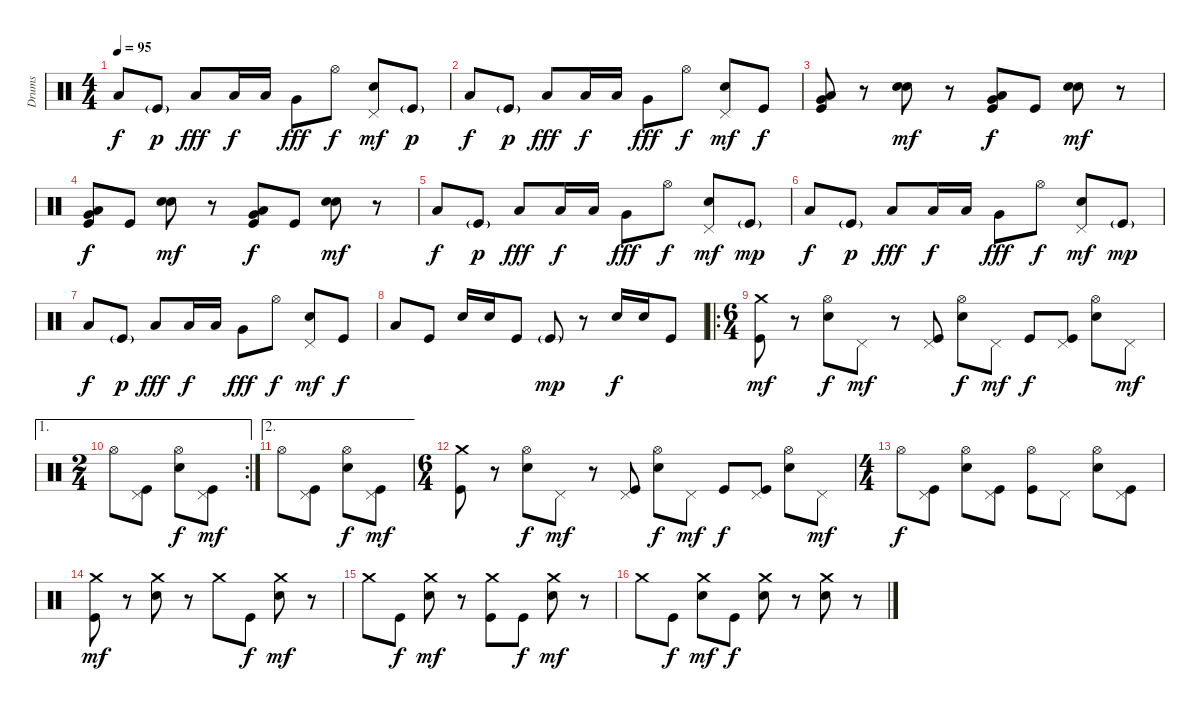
\track ("Drums" "Drums") {instrument percussion}
\staff {score}
\articulation defaults
\ts (4 4)
\tempo 95
\clef neutral
\ks c "Low Floor Tom (hit)".8{dy f} "Kick (hit)"{g}.8{dy p} "Low Tom (hit)".8{dy fff} "Low Tom (hit)".16{dy f} "Low Tom (hit)".16 "Very Low Tom (hit)".8{dy fff} "Hi-Hat (open)".8{dy f}
("Pedal Hi-Hat (hit)" "Snare (hit) 2").8{dy mf} "Kick (hit)"{g}.8{dy p} |
"Low Floor Tom (hit)".8{dy f} "Kick (hit)"{g}.8{dy p} "Low Tom (hit)".8{dy fff} "Low Tom (hit)".16{dy f} "Low Tom (hit)".16 "Very Low Tom (hit)".8{dy fff} "Hi-Hat (open)".8{dy f} ("Pedal Hi-Hat (hit)" "Snare (hit) 2").8{dy mf} "Kick (hit)".8{dy f} |
("Very Low Tom (hit)" "Low Floor Tom (hit)" "Kick (hit)").8 r.8 ("Snare (hit) 2" "Snare (hit) 2").8{dy mf} r.8 ("Very Low Tom (hit)" "Low Floor Tom (hit)" "Kick (hit)").8{dy f} "Kick (hit)".8 ("Snare (hit) 2" "Snare (hit) 2").8{dy mf} r.8 |
("Very Low Tom (hit)" "Low Floor Tom (hit)" "Kick (hit)").8{dy f} "Kick (hit)".8 ("Snare (hit) 2" "Snare (hit) 2").8{dy mf} r.8 ("Very Low Tom (hit)" "Low Floor Tom (hit)" "Kick (hit)").8{dy f} "Kick (hit)".8 ("Snare (hit) 2" "Snare (hit) 2").8{dy mf} r.8 |
"Low Floor Tom (hit)".8{dy f} "Kick (hit)"{g}.8{dy p} "Low Tom (hit)".8{dy fff} "Low Tom (hit)".16{dy f} "Low Tom (hit)".16 "Very Low Tom (hit)".8{dy fff} "Hi-Hat (open)".8{dy f} ("Pedal Hi-Hat (hit)" "Snare (hit) 2").8{dy mf} "Kick (hit)"{g}.8{dy mp} |
"Low Floor Tom (hit)".8{dy f} "Kick (hit)"{g}.8{dy p} "Low Tom (hit)".8{dy fff} "Low Tom (hit)".16{dy f} "Low Tom (hit)".16 "Very Low Tom (hit)".8{dy fff} "Hi-Hat (open)".8{dy f} ("Pedal Hi-Hat (hit)" "Snare (hit) 2").8{dy mf} "Kick (hit)"{g}.8{dy mp} |
"Low Floor Tom (hit)".8{dy f} "Kick (hit)"{g}.8{dy p} "Low Tom (hit)".8{dy fff} "Low Tom (hit)".16{dy f} "Low Tom (hit)".16 "Very Low Tom (hit)".8{dy fff} "Hi-Hat (open)".8{dy f} ("Pedal Hi-Hat (hit)" "Snare (hit) 2").8{dy mf} "Kick (hit)".8{dy f} |
"Low Floor Tom (hit)".8 "Kick (hit)".8 "Snare (hit) 2".16 "Snare (hit) 2".16 "Kick (hit)".8 "Kick (hit)"{g}.8{dy mp} r.8 "Snare (hit) 2".16{dy f} "Snare (hit) 2".16 "Kick (hit)".8 |
\ro
\ts (6 4)
("Crash medium (hit)" "Kick (hit)").8{dy mf} r.8 ("Hi-Hat (open)" "Snare (hit) 2").8{dy f} "Pedal Hi-Hat (hit)".8{dy mf} r.8 ("Pedal Hi-Hat (hit)" "Kick (hit)").8 ("Hi-Hat (open)" "Snare (hit) 2").8{dy f} "Pedal Hi-Hat (hit)".8{dy mf} "Kick (hit)".8{dy f} ("Pedal Hi-Hat (hit)" "Kick (hit)").8 ("Hi-Hat (open)" "Snare (hit) 2").8 "Pedal Hi-Hat (hit)".8{dy mf} |
\ae 1
\rc 2
\ts (2 4)
"Hi-Hat (open)".8 ("Pedal Hi-Hat (hit)" "Kick (hit)").8 ("Hi-Hat (open)" "Snare (hit) 2").8{dy f} ("Pedal Hi-Hat (hit)" "Kick (hit)").8{dy mf} |
\ae 2 "Hi-Hat (open)".8
("Pedal Hi-Hat (hit)" "Kick (hit)").8 ("Hi-Hat (open)" "Snare (hit) 2").8{dy f} ("Pedal Hi-Hat (hit)" "Kick (hit)").8{dy mf} |
\ts (6 4)
("Crash medium (hit)" "Kick (hit)").8 r.8 ("Hi-Hat (open)" "Snare (hit) 2").8{dy f} "Pedal Hi-Hat (hit)".8{dy mf} r.8 ("Pedal Hi-Hat (hit)" "Kick (hit)").8 ("Hi-Hat (open)" "Snare (hit) 2").8{dy f} "Pedal Hi-Hat (hit)".8{dy mf} "Kick (hit)".8{dy f} ("Pedal Hi-Hat (hit)" "Kick (hit)").8 ("Hi-Hat (open)" "Snare (hit) 2").8 "Pedal Hi-Hat (hit)".8{dy mf} |
\ts (4 4)
"Hi-Hat (open)".8{dy f} ("Pedal Hi-Hat (hit)" "Kick (hit)").8 ("Hi-Hat (open)" "Snare (hit) 2").8 ("Pedal Hi-Hat (hit)" "Kick (hit)").8 ("Hi-Hat (open)" "Kick (hit)").8 "Pedal Hi-Hat (hit)".8 ("Hi-Hat (open)" "Snare (hit) 2").8 ("Pedal Hi-Hat (hit)" "Kick (hit)").8 |
("Crash medium (hit)" "Kick (hit)").8{dy mf} r.8 ("Crash medium (hit)" "Snare (hit) 2").8 r.8 "Crash medium (hit)".8 "Kick (hit)".8{dy f} ("Crash medium (hit)" "Snare (hit) 2").8{dy mf} r.8 |
"Crash medium (hit)".8 "Kick (hit)".8{dy f} ("Crash medium (hit)" "Snare (hit) 2").8{dy mf} r.8 ("Crash medium (hit)" "Kick (hit)").8 "Kick (hit)".8{dy f} ("Crash medium (hit)" "Snare (hit) 2").8{dy mf} r.8 |
"Crash medium (hit)".8 "Kick (hit)".8{dy f} ("Crash medium (hit)" "Snare (hit) 2").8{dy mf} "Kick (hit)".8{dy f} ("Crash medium (hit)" "Snare (hit) 2").8 r.8 ("Crash medium (hit)" "Snare (hit) 2").8 r.8
